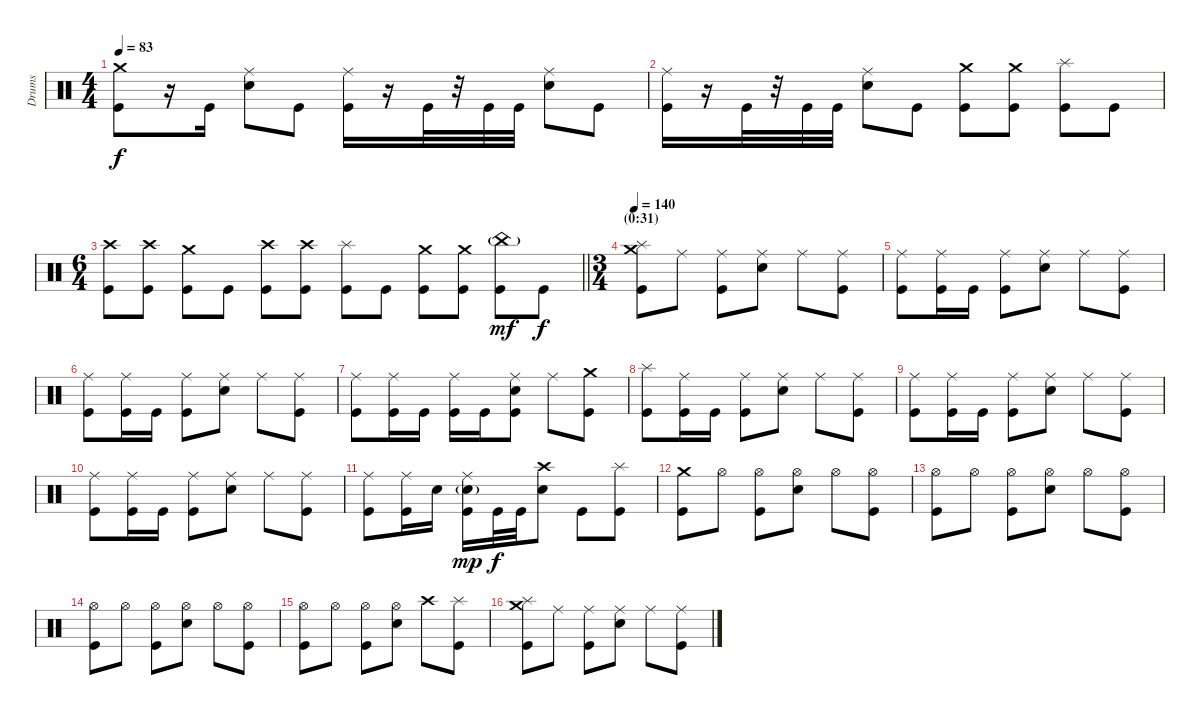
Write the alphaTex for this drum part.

\track ("Drums" "Drums") {instrument percussion}
\staff {score}
\articulation defaults
\ts (4 4)
\tempo 83
\clef neutral
\ks c
("Crash medium (hit)" "Kick (hit)").8{dy f} r.16 "Kick (hit)".16 ("Ride (middle)" "Snare (hit) 2").8 "Kick (hit)".8 ("Ride (middle)" "Kick (hit)").16 r.16 "Kick (hit)".32 r.32 "Kick (hit)".32 "Kick (hit)".32 ("Ride (middle)" "Snare (hit) 2").8 "Kick (hit)".8 |
("Ride (middle)" "Kick (hit)").16 r.16 "Kick (hit)".32 r.32 "Kick (hit)".32 "Kick (hit)".32 ("Ride (middle)" "Snare (hit) 2").8 "Kick (hit)".8 ("Crash medium (hit)" "Kick (hit)").8 ("Crash medium (hit)" "Kick (hit)").8 ("Splash (hit)" "Kick (hit)").8 "Kick (hit)".8 |
\ts (6 4)
\barLineRight lightlight
("Crash high (hit)" "Kick (hit)").8 ("Crash high (hit)" "Kick (hit)").8 ("Crash medium (hit)" "Kick (hit)").8 "Kick (hit)".8 ("Crash high (hit)" "Kick (hit)").8 ("Crash high (hit)" "Kick (hit)").8 ("Splash (hit)" "Kick (hit)").8 "Kick (hit)".8 ("Crash medium (hit)" "Kick (hit)").8 ("Crash medium (hit)" "Kick (hit)").8 ("China (hit)"{g} "Kick (hit)").8{dy mf} "Kick (hit)".8{dy f} |
\ts (3 4)
\section ("" "(0:31)")
\tempo 140
("Crash medium (hit)" "Splash (hit)" "Kick (hit)").8 "Ride (middle)".8 ("Ride (middle)" "Kick (hit)").8 ("Ride (middle)" "Snare (hit) 2").8 "Ride (middle)".8 ("Ride (middle)" "Kick (hit)").8 |
("Ride (middle)" "Kick (hit)").8 ("Ride (middle)" "Kick (hit)").16 "Kick (hit)".16 ("Ride (middle)" "Kick (hit)").8 ("Ride (middle)" "Snare (hit) 2").8 "Ride (middle)".8 ("Ride (middle)" "Kick (hit)").8 |
("Ride (middle)" "Kick (hit)").8 ("Ride (middle)" "Kick (hit)").16 "Kick (hit)".16 ("Ride (middle)" "Kick (hit)").8 ("Ride (middle)" "Snare (hit) 2").8 "Ride (middle)".8 ("Ride (middle)" "Kick (hit)").8 |
("Ride (middle)" "Kick (hit)").8 ("Ride (middle)" "Kick (hit)").16 "Kick (hit)".16 ("Ride (middle)" "Kick (hit)").16 "Kick (hit)".16 ("Ride (middle)" "Snare (hit) 2" "Kick (hit)").8 "Ride (middle)".8 ("Crash medium (hit)" "Kick (hit)").8 |
("Splash (hit)" "Kick (hit)").8 ("Ride (middle)" "Kick (hit)").16 "Kick (hit)".16 ("Ride (middle)" "Kick (hit)").8 ("Ride (middle)" "Snare (hit) 2").8 "Ride (middle)".8 ("Ride (middle)" "Kick (hit)").8 |
("Ride (middle)" "Kick (hit)").8 ("Ride (middle)" "Kick (hit)").16 "Kick (hit)".16 ("Ride (middle)" "Kick (hit)").8 ("Ride (middle)" "Snare (hit) 2").8 "Ride (middle)".8 ("Ride (middle)" "Kick (hit)").8 |
("Ride (middle)" "Kick (hit)").8 ("Ride (middle)" "Kick (hit)").16 "Kick (hit)".16 ("Ride (middle)" "Kick (hit)").8 ("Ride (middle)" "Snare (hit) 2").8 "Ride (middle)".8 ("Ride (middle)" "Kick (hit)").8 |
("Ride (middle)" "Kick (hit)").8 ("Ride (middle)" "Kick (hit)").16 "Snare (hit) 2".16 ("Ride (middle)" "Snare (hit) 2"{g} "Kick (hit)").16{dy mp} "Kick (hit)".32{dy f} "Kick (hit)".32 ("Crash high (hit)" "Snare (hit) 2").8 "Kick (hit)".8 ("Splash (hit)" "Kick (hit)").8 |
("Crash medium (hit)" "Kick (hit)").8 "Hi-Hat (open)".8 ("Hi-Hat (open)" "Kick (hit)").8 ("Hi-Hat (open)" "Snare (hit) 2").8 "Hi-Hat (open)".8 ("Hi-Hat (open)" "Kick (hit)").8 |
("Hi-Hat (open)" "Kick (hit)").8 "Hi-Hat (open)".8 ("Hi-Hat (open)" "Kick (hit)").8 ("Hi-Hat (open)" "Snare (hit) 2").8 "Hi-Hat (open)".8 ("Hi-Hat (open)" "Kick (hit)").8 |
("Hi-Hat (open)" "Kick (hit)").8 "Hi-Hat (open)".8 ("Hi-Hat (open)" "Kick (hit)").8 ("Hi-Hat (open)" "Snare (hit) 2").8 "Hi-Hat (open)".8 ("Hi-Hat (open)" "Kick (hit)").8 |
("Hi-Hat (open)" "Kick (hit)").8 "Hi-Hat (open)".8 ("Hi-Hat (open)" "Kick (hit)").8 ("Hi-Hat (open)" "Snare (hit) 2").8 "Crash high (hit)".8 ("Splash (hit)" "Kick (hit)").8 |
("Crash medium (hit)" "Splash (hit)" "Kick (hit)").8 "Ride (middle)".8 ("Ride (middle)" "Kick (hit)").8 ("Ride (middle)" "Snare (hit) 2").8 "Ride (middle)".8 ("Ride (middle)" "Kick (hit)").8
